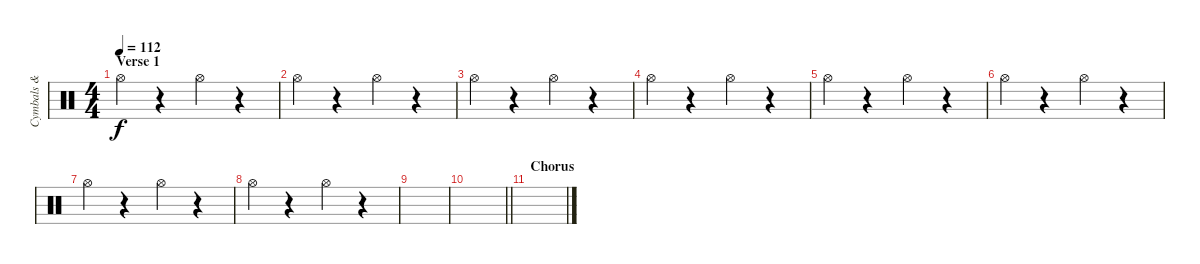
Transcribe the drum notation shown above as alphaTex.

\track ("Cymbals & Hi - Hats" "Cymbals & ") {instrument percussion}
\staff {score}
\articulation defaults
\ts (4 4)
\section ("" "Verse 1")
\tempo 112
\clef neutral
\ks c "Hi-Hat (open)".4{dy f}
r.4 "Hi-Hat (open)".4 r.4 |
"Hi-Hat (open)".4 r.4 "Hi-Hat (open)".4 r.4 |
"Hi-Hat (open)".4 r.4 "Hi-Hat (open)".4 r.4 |
"Hi-Hat (open)".4 r.4 "Hi-Hat (open)".4 r.4 |
"Hi-Hat (open)".4 r.4 "Hi-Hat (open)".4 r.4 |
"Hi-Hat (open)".4 r.4 "Hi-Hat (open)".4 r.4 |
"Hi-Hat (open)".4 r.4 "Hi-Hat (open)".4 r.4 |
"Hi-Hat (open)".4 r.4 "Hi-Hat (open)".4 r.4 |
|
\barLineRight lightlight
|
\section ("" "Chorus")
